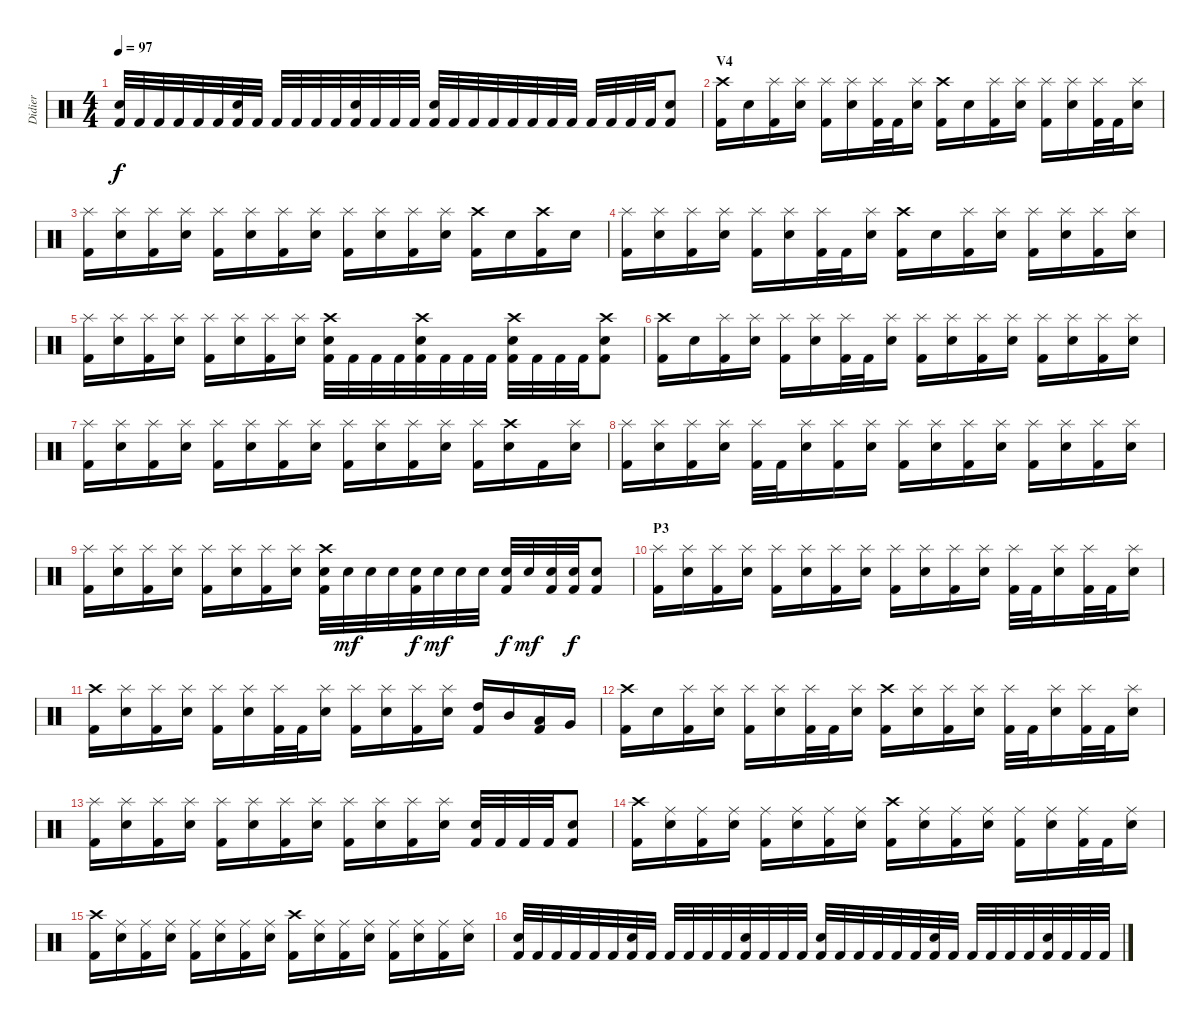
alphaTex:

\track ("Didier" "Didier") {instrument percussion}
\staff {score}
\articulation defaults
\ts (4 4)
\tempo 97
\clef neutral
\ks c
("Snare (hit) 2" "Kick (hit) 2").32{dy f} "Kick (hit) 2".32 "Kick (hit) 2".32 "Kick (hit) 2".32 "Kick (hit) 2".32 "Kick (hit) 2".32 ("Snare (hit) 2" "Kick (hit) 2").32 "Kick (hit) 2".32 "Kick (hit) 2".32 "Kick (hit) 2".32 "Kick (hit) 2".32 "Kick (hit) 2".32 ("Snare (hit) 2" "Kick (hit) 2").32 "Kick (hit) 2".32 "Kick (hit) 2".32 "Kick (hit) 2".32 ("Snare (hit) 2" "Kick (hit) 2").32 "Kick (hit) 2".32 "Kick (hit) 2".32 "Kick (hit) 2".32 "Kick (hit) 2".32 "Kick (hit) 2".32 "Kick (hit) 2".32 "Kick (hit) 2".32 "Kick (hit) 2".32 "Kick (hit) 2".32 "Kick (hit) 2".32 "Kick (hit) 2".32 ("Snare (hit) 2" "Kick (hit) 2").8 |
\section ("" "V4")
("Crash high (hit)" "Kick (hit) 2").16 "Snare (hit) 2".16 ("Splash (hit)" "Kick (hit) 2").16 ("Splash (hit)" "Snare (hit) 2").16 ("Splash (hit)" "Kick (hit) 2").16 ("Splash (hit)" "Snare (hit) 2").16 ("Splash (hit)" "Kick (hit) 2").32 "Kick (hit) 2".32 ("Splash (hit)" "Snare (hit) 2").16 ("Crash high (hit)" "Kick (hit) 2").16 "Snare (hit) 2".16 ("Splash (hit)" "Kick (hit) 2").16 ("Splash (hit)" "Snare (hit) 2").16 ("Splash (hit)" "Kick (hit) 2").16 ("Splash (hit)" "Snare (hit) 2").16 ("Splash (hit)" "Kick (hit) 2").32 "Kick (hit) 2".32 ("Splash (hit)" "Snare (hit) 2").16 |
("Splash (hit)" "Kick (hit) 2").16 ("Splash (hit)" "Snare (hit) 2").16 ("Splash (hit)" "Kick (hit) 2").16 ("Splash (hit)" "Snare (hit) 2").16 ("Splash (hit)" "Kick (hit) 2").16 ("Splash (hit)" "Snare (hit) 2").16 ("Splash (hit)" "Kick (hit) 2").16 ("Splash (hit)" "Snare (hit) 2").16 ("Splash (hit)" "Kick (hit) 2").16 ("Splash (hit)" "Snare (hit) 2").16 ("Splash (hit)" "Kick (hit) 2").16 ("Splash (hit)" "Snare (hit) 2").16 ("Crash high (hit)" "Kick (hit) 2").16 "Snare (hit) 2".16 ("Crash high (hit)" "Kick (hit) 2").16 "Snare (hit) 2".16 |
("Splash (hit)" "Kick (hit) 2").16 ("Splash (hit)" "Snare (hit) 2").16 ("Splash (hit)" "Kick (hit) 2").16 ("Splash (hit)" "Snare (hit) 2").16 ("Splash (hit)" "Kick (hit) 2").16 ("Splash (hit)" "Snare (hit) 2").16 ("Splash (hit)" "Kick (hit) 2").32 "Kick (hit) 2".32 ("Splash (hit)" "Snare (hit) 2").16 ("Crash high (hit)" "Kick (hit) 2").16 "Snare (hit) 2".16 ("Splash (hit)" "Kick (hit) 2").16 ("Splash (hit)" "Snare (hit) 2").16 ("Splash (hit)" "Kick (hit) 2").16 ("Splash (hit)" "Snare (hit) 2").16 ("Splash (hit)" "Kick (hit) 2").16 ("Splash (hit)" "Snare (hit) 2").16 |
("Splash (hit)" "Kick (hit) 2").16 ("Splash (hit)" "Snare (hit) 2").16 ("Splash (hit)" "Kick (hit) 2").16 ("Splash (hit)" "Snare (hit) 2").16 ("Splash (hit)" "Kick (hit) 2").16 ("Splash (hit)" "Snare (hit) 2").16 ("Splash (hit)" "Kick (hit) 2").16 ("Splash (hit)" "Snare (hit) 2").16 ("Crash high (hit)" "Snare (hit) 2" "Kick (hit) 2").32 "Kick (hit) 2".32 "Kick (hit) 2".32 "Kick (hit) 2".32 ("Crash high (hit)" "Snare (hit) 2" "Kick (hit) 2").32 "Kick (hit) 2".32 "Kick (hit) 2".32 "Kick (hit) 2".32 ("Crash high (hit)" "Snare (hit) 2" "Kick (hit) 2").32 "Kick (hit) 2".32 "Kick (hit) 2".32 "Kick (hit) 2".32 ("Crash high (hit)" "Snare (hit) 2" "Kick (hit) 2").8 |
("Crash high (hit)" "Kick (hit) 2").16 "Snare (hit) 2".16 ("Splash (hit)" "Kick (hit) 2").16 ("Splash (hit)" "Snare (hit) 2").16 ("Splash (hit)" "Kick (hit) 2").16 ("Splash (hit)" "Snare (hit) 2").16 ("Splash (hit)" "Kick (hit) 2").32 "Kick (hit) 2".32 ("Splash (hit)" "Snare (hit) 2").16 ("Splash (hit)" "Kick (hit) 2").16 ("Splash (hit)" "Snare (hit) 2").16 ("Splash (hit)" "Kick (hit) 2").16 ("Splash (hit)" "Snare (hit) 2").16 ("Splash (hit)" "Kick (hit) 2").16 ("Splash (hit)" "Snare (hit) 2").16 ("Splash (hit)" "Kick (hit) 2").16 ("Splash (hit)" "Snare (hit) 2").16 |
("Splash (hit)" "Kick (hit) 2").16 ("Splash (hit)" "Snare (hit) 2").16 ("Splash (hit)" "Kick (hit) 2").16 ("Splash (hit)" "Snare (hit) 2").16 ("Splash (hit)" "Kick (hit) 2").16 ("Splash (hit)" "Snare (hit) 2").16 ("Splash (hit)" "Kick (hit) 2").16 ("Splash (hit)" "Snare (hit) 2").16 ("Splash (hit)" "Kick (hit) 2").16 ("Splash (hit)" "Snare (hit) 2").16 ("Splash (hit)" "Kick (hit) 2").16 ("Splash (hit)" "Snare (hit) 2").16 ("Splash (hit)" "Kick (hit) 2").16 ("Crash high (hit)" "Snare (hit) 2").16 "Kick (hit) 2".16 ("Splash (hit)" "Snare (hit) 2").16 |
("Splash (hit)" "Kick (hit) 2").16 ("Splash (hit)" "Snare (hit) 2").16 ("Splash (hit)" "Kick (hit) 2").16 ("Splash (hit)" "Snare (hit) 2").16 ("Splash (hit)" "Kick (hit) 2").32 "Kick (hit) 2".32 ("Splash (hit)" "Snare (hit) 2").16 ("Splash (hit)" "Kick (hit) 2").16 ("Splash (hit)" "Snare (hit) 2").16 ("Splash (hit)" "Kick (hit) 2").16 ("Splash (hit)" "Snare (hit) 2").16 ("Splash (hit)" "Kick (hit) 2").16 ("Splash (hit)" "Snare (hit) 2").16 ("Splash (hit)" "Kick (hit) 2").16 ("Splash (hit)" "Snare (hit) 2").16 ("Splash (hit)" "Kick (hit) 2").16 ("Splash (hit)" "Snare (hit) 2").16 |
("Splash (hit)" "Kick (hit) 2").16 ("Splash (hit)" "Snare (hit) 2").16 ("Splash (hit)" "Kick (hit) 2").16 ("Splash (hit)" "Snare (hit) 2").16 ("Splash (hit)" "Kick (hit) 2").16 ("Splash (hit)" "Snare (hit) 2").16 ("Splash (hit)" "Kick (hit) 2").16 ("Splash (hit)" "Snare (hit) 2").16 ("Crash high (hit)" "Snare (hit) 2" "Kick (hit) 2").32 "Snare (hit) 2".32{dy mf} "Snare (hit) 2".32 "Snare (hit) 2".32 ("Snare (hit) 2" "Kick (hit) 2").32{dy f} "Snare (hit) 2".32{dy mf} "Snare (hit) 2".32 "Snare (hit) 2".32 ("Snare (hit) 2" "Kick (hit) 2").32{dy f} "Snare (hit) 2".32{dy mf} ("Snare (hit) 2" "Kick (hit) 2").32 ("Snare (hit) 2" "Kick (hit) 2").32{dy f} ("Snare (hit) 2" "Kick (hit) 2").8 |
\section ("" "P3")
("Splash (hit)" "Kick (hit) 2").16 ("Splash (hit)" "Snare (hit) 2").16 ("Splash (hit)" "Kick (hit) 2").16 ("Splash (hit)" "Snare (hit) 2").16 ("Splash (hit)" "Kick (hit) 2").16 ("Splash (hit)" "Snare (hit) 2").16 ("Splash (hit)" "Kick (hit) 2").16 ("Splash (hit)" "Snare (hit) 2").16 ("Splash (hit)" "Kick (hit) 2").16 ("Splash (hit)" "Snare (hit) 2").16 ("Splash (hit)" "Kick (hit) 2").16 ("Splash (hit)" "Snare (hit) 2").16 ("Splash (hit)" "Kick (hit) 2").32 "Kick (hit) 2".32 ("Splash (hit)" "Snare (hit) 2").16 ("Splash (hit)" "Kick (hit) 2").32 "Kick (hit) 2".32 ("Splash (hit)" "Snare (hit) 2").16 |
("Crash high (hit)" "Kick (hit) 2").16 ("Splash (hit)" "Snare (hit) 2").16 ("Splash (hit)" "Kick (hit) 2").16 ("Splash (hit)" "Snare (hit) 2").16 ("Splash (hit)" "Kick (hit) 2").16 ("Splash (hit)" "Snare (hit) 2").16 ("Splash (hit)" "Kick (hit) 2").32 "Kick (hit) 2".32 ("Splash (hit)" "Snare (hit) 2").16 ("Splash (hit)" "Kick (hit) 2").16 ("Splash (hit)" "Snare (hit) 2").16 ("Splash (hit)" "Kick (hit) 2").16 ("Splash (hit)" "Snare (hit) 2").16 ("High Tom (hit)" "Kick (hit) 2").16 "Mid Tom (hit)".16 ("Low Tom (hit)" "Kick (hit) 2").16 "Very Low Tom (hit)".16 |
("Crash high (hit)" "Kick (hit) 2").16 "Snare (hit) 2".16 ("Splash (hit)" "Kick (hit) 2").16 ("Splash (hit)" "Snare (hit) 2").16 ("Splash (hit)" "Kick (hit) 2").16 ("Splash (hit)" "Snare (hit) 2").16 ("Splash (hit)" "Kick (hit) 2").32 "Kick (hit) 2".32 ("Splash (hit)" "Snare (hit) 2").16 ("Crash high (hit)" "Kick (hit) 2").16 ("Splash (hit)" "Snare (hit) 2").16 ("Splash (hit)" "Kick (hit) 2").16 ("Splash (hit)" "Snare (hit) 2").16 ("Splash (hit)" "Kick (hit) 2").32 "Kick (hit) 2".32 ("Splash (hit)" "Snare (hit) 2").16 ("Splash (hit)" "Kick (hit) 2").32 "Kick (hit) 2".32 ("Splash (hit)" "Snare (hit) 2").16 |
("Splash (hit)" "Kick (hit) 2").16 ("Splash (hit)" "Snare (hit) 2").16 ("Splash (hit)" "Kick (hit) 2").16 ("Splash (hit)" "Snare (hit) 2").16 ("Splash (hit)" "Kick (hit) 2").16 ("Splash (hit)" "Snare (hit) 2").16 ("Splash (hit)" "Kick (hit) 2").16 ("Splash (hit)" "Snare (hit) 2").16 ("Splash (hit)" "Kick (hit) 2").16 ("Splash (hit)" "Snare (hit) 2").16 ("Splash (hit)" "Kick (hit) 2").16 ("Splash (hit)" "Snare (hit) 2").16 ("Snare (hit) 2" "Kick (hit) 2").32 "Kick (hit) 2".32 "Kick (hit) 2".32 "Kick (hit) 2".32 ("Snare (hit) 2" "Kick (hit) 2").8 |
("Crash high (hit)" "Kick (hit) 2").16 ("Ride (middle)" "Snare (hit) 2").16 ("Ride (middle)" "Kick (hit) 2").16 ("Ride (middle)" "Snare (hit) 2").16 ("Ride (middle)" "Kick (hit) 2").16 ("Ride (middle)" "Snare (hit) 2").16 ("Ride (middle)" "Kick (hit) 2").16 ("Ride (middle)" "Snare (hit) 2").16 ("Crash high (hit)" "Kick (hit) 2").16 ("Ride (middle)" "Snare (hit) 2").16 ("Ride (middle)" "Kick (hit) 2").16 ("Ride (middle)" "Snare (hit) 2").16 ("Ride (middle)" "Kick (hit) 2").16 ("Ride (middle)" "Snare (hit) 2").16 ("Ride (middle)" "Kick (hit) 2").32 "Kick (hit) 2".32 ("Ride (middle)" "Snare (hit) 2").16 |
("Crash high (hit)" "Kick (hit) 2").16 ("Ride (middle)" "Snare (hit) 2").16 ("Ride (middle)" "Kick (hit) 2").16 ("Ride (middle)" "Snare (hit) 2").16 ("Ride (middle)" "Kick (hit) 2").16 ("Ride (middle)" "Snare (hit) 2").16 ("Ride (middle)" "Kick (hit) 2").16 ("Ride (middle)" "Snare (hit) 2").16 ("Crash high (hit)" "Kick (hit) 2").16 ("Ride (middle)" "Snare (hit) 2").16 ("Ride (middle)" "Kick (hit) 2").16 ("Ride (middle)" "Snare (hit) 2").16 ("Ride (middle)" "Kick (hit) 2").16 ("Ride (middle)" "Snare (hit) 2").16 ("Ride (middle)" "Kick (hit) 2").16 ("Ride (middle)" "Snare (hit) 2").16 |
("Snare (hit) 2" "Kick (hit) 2").32 "Kick (hit) 2".32 "Kick (hit) 2".32 "Kick (hit) 2".32 "Kick (hit) 2".32 "Kick (hit) 2".32 ("Snare (hit) 2" "Kick (hit) 2").32 "Kick (hit) 2".32 "Kick (hit) 2".32 "Kick (hit) 2".32 "Kick (hit) 2".32 "Kick (hit) 2".32 ("Snare (hit) 2" "Kick (hit) 2").32 "Kick (hit) 2".32 "Kick (hit) 2".32 "Kick (hit) 2".32 ("Snare (hit) 2" "Kick (hit) 2").32 "Kick (hit) 2".32 "Kick (hit) 2".32 "Kick (hit) 2".32 "Kick (hit) 2".32 "Kick (hit) 2".32 ("Snare (hit) 2" "Kick (hit) 2").32 "Kick (hit) 2".32 "Kick (hit) 2".32 "Kick (hit) 2".32 "Kick (hit) 2".32 "Kick (hit) 2".32 ("Snare (hit) 2" "Kick (hit) 2").32 "Kick (hit) 2".32 "Kick (hit) 2".32 "Kick (hit) 2".32
